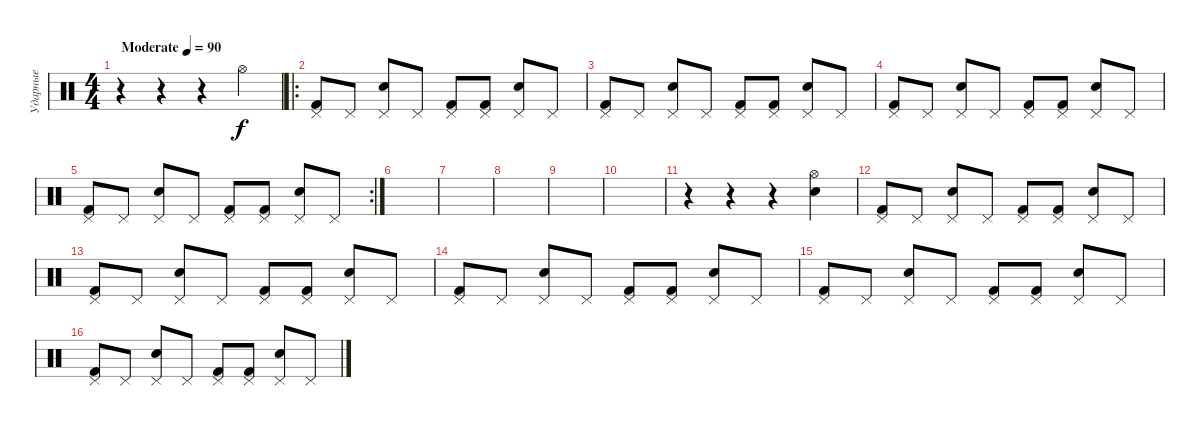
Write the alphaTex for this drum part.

\track ("Ударные" "Ударные") {instrument percussion}
\staff {score}
\articulation defaults
\ts (4 4)
\tempo (90 "Moderate")
\clef neutral
\ks c
r.4{dy f} r.4 r.4 "Hi-Hat (open)".4 |
\ro
("Pedal Hi-Hat (hit)" "Kick (hit) 2").8 "Pedal Hi-Hat (hit)".8 ("Pedal Hi-Hat (hit)" "Snare (hit) 2").8 "Pedal Hi-Hat (hit)".8 ("Pedal Hi-Hat (hit)" "Kick (hit) 2").8 ("Pedal Hi-Hat (hit)" "Kick (hit) 2").8 ("Pedal Hi-Hat (hit)" "Snare (hit) 2").8 "Pedal Hi-Hat (hit)".8 |
("Pedal Hi-Hat (hit)" "Kick (hit) 2").8 "Pedal Hi-Hat (hit)".8 ("Pedal Hi-Hat (hit)" "Snare (hit) 2").8 "Pedal Hi-Hat (hit)".8 ("Pedal Hi-Hat (hit)" "Kick (hit) 2").8 ("Pedal Hi-Hat (hit)" "Kick (hit) 2").8 ("Pedal Hi-Hat (hit)" "Snare (hit) 2").8 "Pedal Hi-Hat (hit)".8 |
("Pedal Hi-Hat (hit)" "Kick (hit) 2").8 "Pedal Hi-Hat (hit)".8 ("Pedal Hi-Hat (hit)" "Snare (hit) 2").8 "Pedal Hi-Hat (hit)".8 ("Pedal Hi-Hat (hit)" "Kick (hit) 2").8 ("Pedal Hi-Hat (hit)" "Kick (hit) 2").8 ("Pedal Hi-Hat (hit)" "Snare (hit) 2").8 "Pedal Hi-Hat (hit)".8 |
\rc 2
("Pedal Hi-Hat (hit)" "Kick (hit) 2").8 "Pedal Hi-Hat (hit)".8 ("Pedal Hi-Hat (hit)" "Snare (hit) 2").8 "Pedal Hi-Hat (hit)".8 ("Pedal Hi-Hat (hit)" "Kick (hit) 2").8 ("Pedal Hi-Hat (hit)" "Kick (hit) 2").8 ("Pedal Hi-Hat (hit)" "Snare (hit) 2").8 "Pedal Hi-Hat (hit)".8 |
|
|
|
|
|
r.4 r.4 r.4 ("Hi-Hat (open)" "Snare (hit) 2").4 |
("Pedal Hi-Hat (hit)" "Kick (hit) 2").8 "Pedal Hi-Hat (hit)".8 ("Pedal Hi-Hat (hit)" "Snare (hit) 2").8 "Pedal Hi-Hat (hit)".8 ("Pedal Hi-Hat (hit)" "Kick (hit) 2").8 ("Pedal Hi-Hat (hit)" "Kick (hit) 2").8 ("Pedal Hi-Hat (hit)" "Snare (hit) 2").8 "Pedal Hi-Hat (hit)".8 |
("Pedal Hi-Hat (hit)" "Kick (hit) 2").8 "Pedal Hi-Hat (hit)".8 ("Pedal Hi-Hat (hit)" "Snare (hit) 2").8 "Pedal Hi-Hat (hit)".8 ("Pedal Hi-Hat (hit)" "Kick (hit) 2").8 ("Pedal Hi-Hat (hit)" "Kick (hit) 2").8 ("Pedal Hi-Hat (hit)" "Snare (hit) 2").8 "Pedal Hi-Hat (hit)".8 |
("Pedal Hi-Hat (hit)" "Kick (hit) 2").8 "Pedal Hi-Hat (hit)".8 ("Pedal Hi-Hat (hit)" "Snare (hit) 2").8 "Pedal Hi-Hat (hit)".8 ("Pedal Hi-Hat (hit)" "Kick (hit) 2").8 ("Pedal Hi-Hat (hit)" "Kick (hit) 2").8 ("Pedal Hi-Hat (hit)" "Snare (hit) 2").8 "Pedal Hi-Hat (hit)".8 |
("Pedal Hi-Hat (hit)" "Kick (hit) 2").8 "Pedal Hi-Hat (hit)".8 ("Pedal Hi-Hat (hit)" "Snare (hit) 2").8 "Pedal Hi-Hat (hit)".8 ("Pedal Hi-Hat (hit)" "Kick (hit) 2").8 ("Pedal Hi-Hat (hit)" "Kick (hit) 2").8 ("Pedal Hi-Hat (hit)" "Snare (hit) 2").8 "Pedal Hi-Hat (hit)".8 |
("Pedal Hi-Hat (hit)" "Kick (hit) 2").8 "Pedal Hi-Hat (hit)".8 ("Pedal Hi-Hat (hit)" "Snare (hit) 2").8 "Pedal Hi-Hat (hit)".8 ("Pedal Hi-Hat (hit)" "Kick (hit) 2").8 ("Pedal Hi-Hat (hit)" "Kick (hit) 2").8 ("Pedal Hi-Hat (hit)" "Snare (hit) 2").8 "Pedal Hi-Hat (hit)".8
